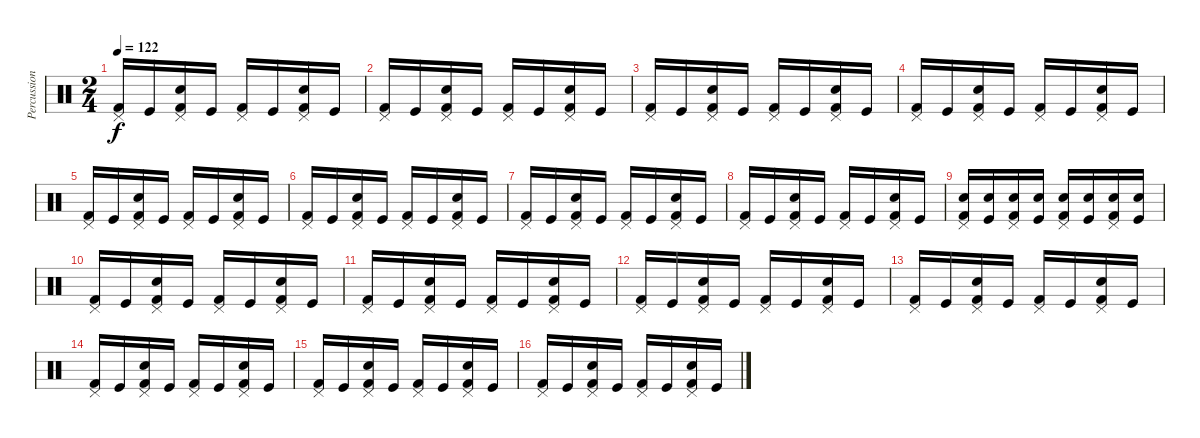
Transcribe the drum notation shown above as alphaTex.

\track ("Percussions" "Percussion") {instrument percussion}
\staff {score}
\articulation defaults
\ts (2 4)
\tempo 122
\clef neutral
\ks c
("Pedal Hi-Hat (hit)" "Kick (hit) 2").16{dy f} "Kick (hit)".16 ("Pedal Hi-Hat (hit)" "Snare (hit) 2" "Kick (hit) 2").16 "Kick (hit)".16 ("Pedal Hi-Hat (hit)" "Kick (hit) 2").16 "Kick (hit)".16 ("Pedal Hi-Hat (hit)" "Snare (hit) 2" "Kick (hit) 2").16 "Kick (hit)".16 |
("Pedal Hi-Hat (hit)" "Kick (hit) 2").16 "Kick (hit)".16 ("Pedal Hi-Hat (hit)" "Snare (hit) 2" "Kick (hit) 2").16 "Kick (hit)".16 ("Pedal Hi-Hat (hit)" "Kick (hit) 2").16 "Kick (hit)".16 ("Pedal Hi-Hat (hit)" "Snare (hit) 2" "Kick (hit) 2").16 "Kick (hit)".16 |
("Pedal Hi-Hat (hit)" "Kick (hit) 2").16 "Kick (hit)".16 ("Pedal Hi-Hat (hit)" "Snare (hit) 2" "Kick (hit) 2").16 "Kick (hit)".16 ("Pedal Hi-Hat (hit)" "Kick (hit) 2").16 "Kick (hit)".16 ("Pedal Hi-Hat (hit)" "Snare (hit) 2" "Kick (hit) 2").16 "Kick (hit)".16 |
("Pedal Hi-Hat (hit)" "Kick (hit) 2").16 "Kick (hit)".16 ("Pedal Hi-Hat (hit)" "Snare (hit) 2" "Kick (hit) 2").16 "Kick (hit)".16 ("Pedal Hi-Hat (hit)" "Kick (hit) 2").16 "Kick (hit)".16 ("Pedal Hi-Hat (hit)" "Snare (hit) 2" "Kick (hit) 2").16 "Kick (hit)".16 |
("Pedal Hi-Hat (hit)" "Kick (hit) 2").16 "Kick (hit)".16 ("Pedal Hi-Hat (hit)" "Snare (hit) 2" "Kick (hit) 2").16 "Kick (hit)".16 ("Pedal Hi-Hat (hit)" "Kick (hit) 2").16 "Kick (hit)".16 ("Pedal Hi-Hat (hit)" "Snare (hit) 2" "Kick (hit) 2").16 "Kick (hit)".16 |
("Pedal Hi-Hat (hit)" "Kick (hit) 2").16 "Kick (hit)".16 ("Pedal Hi-Hat (hit)" "Snare (hit) 2" "Kick (hit) 2").16 "Kick (hit)".16 ("Pedal Hi-Hat (hit)" "Kick (hit) 2").16 "Kick (hit)".16 ("Pedal Hi-Hat (hit)" "Snare (hit) 2" "Kick (hit) 2").16 "Kick (hit)".16 |
("Pedal Hi-Hat (hit)" "Kick (hit) 2").16 "Kick (hit)".16 ("Pedal Hi-Hat (hit)" "Snare (hit) 2" "Kick (hit) 2").16 "Kick (hit)".16 ("Pedal Hi-Hat (hit)" "Kick (hit) 2").16 "Kick (hit)".16 ("Pedal Hi-Hat (hit)" "Snare (hit) 2" "Kick (hit) 2").16 "Kick (hit)".16 |
("Pedal Hi-Hat (hit)" "Kick (hit) 2").16 "Kick (hit)".16 ("Pedal Hi-Hat (hit)" "Snare (hit) 2" "Kick (hit) 2").16 "Kick (hit)".16 ("Pedal Hi-Hat (hit)" "Kick (hit) 2").16 "Kick (hit)".16 ("Pedal Hi-Hat (hit)" "Snare (hit) 2" "Kick (hit) 2").16 "Kick (hit)".16 |
("Pedal Hi-Hat (hit)" "Snare (hit) 2" "Kick (hit) 2").16 ("Snare (hit) 2" "Kick (hit)").16 ("Pedal Hi-Hat (hit)" "Snare (hit) 2" "Kick (hit) 2").16 ("Snare (hit) 2" "Kick (hit)").16 ("Pedal Hi-Hat (hit)" "Snare (hit) 2" "Kick (hit) 2").16 ("Snare (hit) 2" "Kick (hit)").16 ("Pedal Hi-Hat (hit)" "Snare (hit) 2" "Kick (hit) 2").16 ("Snare (hit) 2" "Kick (hit)").16 |
("Pedal Hi-Hat (hit)" "Kick (hit) 2").16 "Kick (hit)".16 ("Pedal Hi-Hat (hit)" "Snare (hit) 2" "Kick (hit) 2").16 "Kick (hit)".16 ("Pedal Hi-Hat (hit)" "Kick (hit) 2").16 "Kick (hit)".16 ("Pedal Hi-Hat (hit)" "Snare (hit) 2" "Kick (hit) 2").16 "Kick (hit)".16 |
("Pedal Hi-Hat (hit)" "Kick (hit) 2").16 "Kick (hit)".16 ("Pedal Hi-Hat (hit)" "Snare (hit) 2" "Kick (hit) 2").16 "Kick (hit)".16 ("Pedal Hi-Hat (hit)" "Kick (hit) 2").16 "Kick (hit)".16 ("Pedal Hi-Hat (hit)" "Snare (hit) 2" "Kick (hit) 2").16 "Kick (hit)".16 |
("Pedal Hi-Hat (hit)" "Kick (hit) 2").16 "Kick (hit)".16 ("Pedal Hi-Hat (hit)" "Snare (hit) 2" "Kick (hit) 2").16 "Kick (hit)".16 ("Pedal Hi-Hat (hit)" "Kick (hit) 2").16 "Kick (hit)".16 ("Pedal Hi-Hat (hit)" "Snare (hit) 2" "Kick (hit) 2").16 "Kick (hit)".16 |
("Pedal Hi-Hat (hit)" "Kick (hit) 2").16 "Kick (hit)".16 ("Pedal Hi-Hat (hit)" "Snare (hit) 2" "Kick (hit) 2").16 "Kick (hit)".16 ("Pedal Hi-Hat (hit)" "Kick (hit) 2").16 "Kick (hit)".16 ("Pedal Hi-Hat (hit)" "Snare (hit) 2" "Kick (hit) 2").16 "Kick (hit)".16 |
("Pedal Hi-Hat (hit)" "Kick (hit) 2").16 "Kick (hit)".16 ("Pedal Hi-Hat (hit)" "Snare (hit) 2" "Kick (hit) 2").16 "Kick (hit)".16 ("Pedal Hi-Hat (hit)" "Kick (hit) 2").16 "Kick (hit)".16 ("Pedal Hi-Hat (hit)" "Snare (hit) 2" "Kick (hit) 2").16 "Kick (hit)".16 |
("Pedal Hi-Hat (hit)" "Kick (hit) 2").16 "Kick (hit)".16 ("Pedal Hi-Hat (hit)" "Snare (hit) 2" "Kick (hit) 2").16 "Kick (hit)".16 ("Pedal Hi-Hat (hit)" "Kick (hit) 2").16 "Kick (hit)".16 ("Pedal Hi-Hat (hit)" "Snare (hit) 2" "Kick (hit) 2").16 "Kick (hit)".16 |
("Pedal Hi-Hat (hit)" "Kick (hit) 2").16 "Kick (hit)".16 ("Pedal Hi-Hat (hit)" "Snare (hit) 2" "Kick (hit) 2").16 "Kick (hit)".16 ("Pedal Hi-Hat (hit)" "Kick (hit) 2").16 "Kick (hit)".16 ("Pedal Hi-Hat (hit)" "Snare (hit) 2" "Kick (hit) 2").16 "Kick (hit)".16
